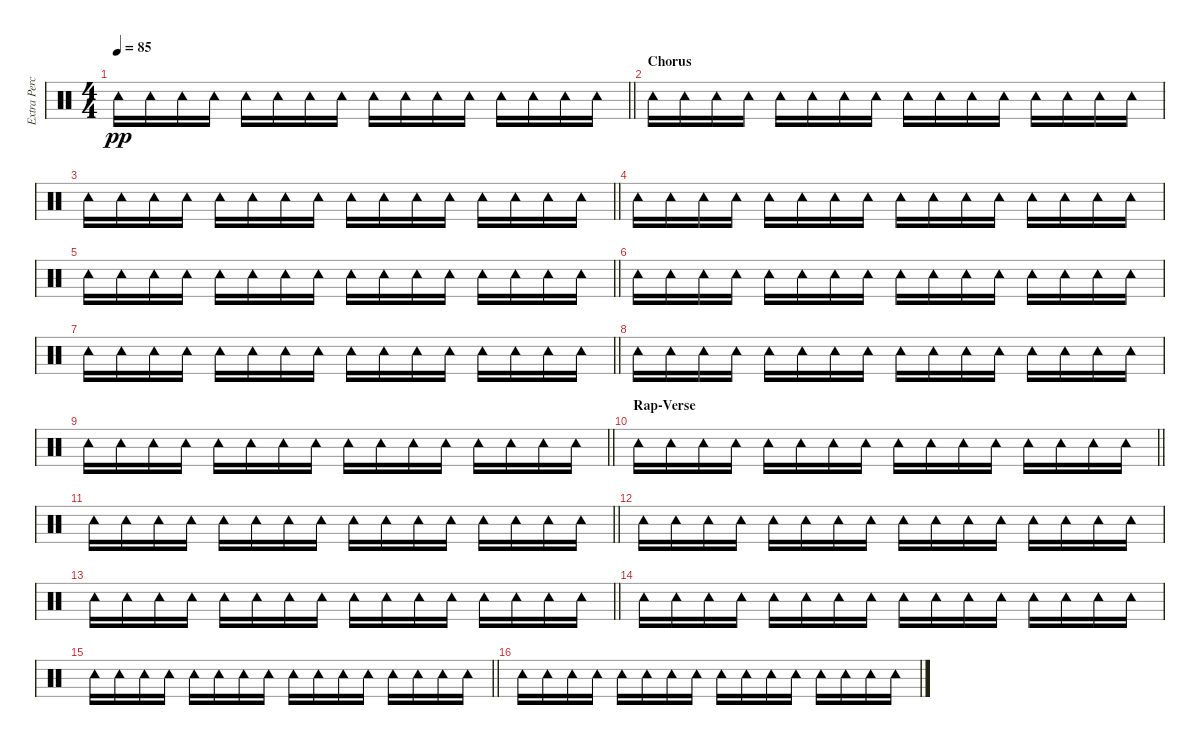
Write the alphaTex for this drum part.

\track ("Extra Percussion" "Extra Perc") {instrument percussion}
\staff {score}
\articulation defaults
\ts (4 4)
\tempo 85
\clef neutral
\barLineRight lightlight
\ks c "Tambourine (hit)".16{dy pp} "Tambourine (hit)".16 "Tambourine (hit)".16 "Tambourine (hit)".16 "Tambourine (hit)".16 "Tambourine (hit)".16 "Tambourine (hit)".16 "Tambourine (hit)".16 "Tambourine (hit)".16 "Tambourine (hit)".16 "Tambourine (hit)".16 "Tambourine (hit)".16 "Tambourine (hit)".16 "Tambourine (hit)".16 "Tambourine (hit)".16 "Tambourine (hit)".16
|
\section ("" "Chorus")
"Tambourine (hit)".16 "Tambourine (hit)".16 "Tambourine (hit)".16 "Tambourine (hit)".16 "Tambourine (hit)".16 "Tambourine (hit)".16 "Tambourine (hit)".16 "Tambourine (hit)".16 "Tambourine (hit)".16 "Tambourine (hit)".16 "Tambourine (hit)".16 "Tambourine (hit)".16 "Tambourine (hit)".16 "Tambourine (hit)".16 "Tambourine (hit)".16 "Tambourine (hit)".16 |
\barLineRight lightlight "Tambourine (hit)".16 "Tambourine (hit)".16 "Tambourine (hit)".16 "Tambourine (hit)".16 "Tambourine (hit)".16 "Tambourine (hit)".16 "Tambourine (hit)".16 "Tambourine (hit)".16 "Tambourine (hit)".16 "Tambourine (hit)".16 "Tambourine (hit)".16 "Tambourine (hit)".16 "Tambourine (hit)".16 "Tambourine (hit)".16 "Tambourine (hit)".16 "Tambourine (hit)".16
|
"Tambourine (hit)".16 "Tambourine (hit)".16 "Tambourine (hit)".16 "Tambourine (hit)".16 "Tambourine (hit)".16 "Tambourine (hit)".16 "Tambourine (hit)".16 "Tambourine (hit)".16 "Tambourine (hit)".16 "Tambourine (hit)".16 "Tambourine (hit)".16 "Tambourine (hit)".16 "Tambourine (hit)".16 "Tambourine (hit)".16 "Tambourine (hit)".16 "Tambourine (hit)".16 |
\barLineRight lightlight "Tambourine (hit)".16 "Tambourine (hit)".16 "Tambourine (hit)".16 "Tambourine (hit)".16 "Tambourine (hit)".16 "Tambourine (hit)".16 "Tambourine (hit)".16 "Tambourine (hit)".16 "Tambourine (hit)".16 "Tambourine (hit)".16 "Tambourine (hit)".16 "Tambourine (hit)".16 "Tambourine (hit)".16 "Tambourine (hit)".16 "Tambourine (hit)".16 "Tambourine (hit)".16
|
"Tambourine (hit)".16 "Tambourine (hit)".16 "Tambourine (hit)".16 "Tambourine (hit)".16 "Tambourine (hit)".16 "Tambourine (hit)".16 "Tambourine (hit)".16 "Tambourine (hit)".16 "Tambourine (hit)".16 "Tambourine (hit)".16 "Tambourine (hit)".16 "Tambourine (hit)".16 "Tambourine (hit)".16 "Tambourine (hit)".16 "Tambourine (hit)".16 "Tambourine (hit)".16 |
\barLineRight lightlight "Tambourine (hit)".16 "Tambourine (hit)".16 "Tambourine (hit)".16 "Tambourine (hit)".16 "Tambourine (hit)".16 "Tambourine (hit)".16 "Tambourine (hit)".16 "Tambourine (hit)".16 "Tambourine (hit)".16 "Tambourine (hit)".16 "Tambourine (hit)".16 "Tambourine (hit)".16 "Tambourine (hit)".16 "Tambourine (hit)".16 "Tambourine (hit)".16 "Tambourine (hit)".16
|
"Tambourine (hit)".16 "Tambourine (hit)".16 "Tambourine (hit)".16 "Tambourine (hit)".16 "Tambourine (hit)".16 "Tambourine (hit)".16 "Tambourine (hit)".16 "Tambourine (hit)".16 "Tambourine (hit)".16 "Tambourine (hit)".16 "Tambourine (hit)".16 "Tambourine (hit)".16 "Tambourine (hit)".16 "Tambourine (hit)".16 "Tambourine (hit)".16 "Tambourine (hit)".16 |
\barLineRight lightlight "Tambourine (hit)".16 "Tambourine (hit)".16 "Tambourine (hit)".16 "Tambourine (hit)".16 "Tambourine (hit)".16 "Tambourine (hit)".16 "Tambourine (hit)".16 "Tambourine (hit)".16 "Tambourine (hit)".16 "Tambourine (hit)".16 "Tambourine (hit)".16 "Tambourine (hit)".16 "Tambourine (hit)".16 "Tambourine (hit)".16 "Tambourine (hit)".16 "Tambourine (hit)".16
|
\section ("" "Rap-Verse")
\barLineRight lightlight "Tambourine (hit)".16 "Tambourine (hit)".16 "Tambourine (hit)".16 "Tambourine (hit)".16 "Tambourine (hit)".16 "Tambourine (hit)".16 "Tambourine (hit)".16 "Tambourine (hit)".16 "Tambourine (hit)".16 "Tambourine (hit)".16 "Tambourine (hit)".16 "Tambourine (hit)".16 "Tambourine (hit)".16 "Tambourine (hit)".16 "Tambourine (hit)".16 "Tambourine (hit)".16
|
\barLineRight lightlight "Tambourine (hit)".16 "Tambourine (hit)".16 "Tambourine (hit)".16 "Tambourine (hit)".16 "Tambourine (hit)".16 "Tambourine (hit)".16 "Tambourine (hit)".16 "Tambourine (hit)".16 "Tambourine (hit)".16 "Tambourine (hit)".16 "Tambourine (hit)".16 "Tambourine (hit)".16 "Tambourine (hit)".16 "Tambourine (hit)".16 "Tambourine (hit)".16 "Tambourine (hit)".16
|
"Tambourine (hit)".16 "Tambourine (hit)".16 "Tambourine (hit)".16 "Tambourine (hit)".16 "Tambourine (hit)".16 "Tambourine (hit)".16 "Tambourine (hit)".16 "Tambourine (hit)".16 "Tambourine (hit)".16 "Tambourine (hit)".16 "Tambourine (hit)".16 "Tambourine (hit)".16 "Tambourine (hit)".16 "Tambourine (hit)".16 "Tambourine (hit)".16 "Tambourine (hit)".16 |
\barLineRight lightlight "Tambourine (hit)".16 "Tambourine (hit)".16 "Tambourine (hit)".16 "Tambourine (hit)".16 "Tambourine (hit)".16 "Tambourine (hit)".16 "Tambourine (hit)".16 "Tambourine (hit)".16 "Tambourine (hit)".16 "Tambourine (hit)".16 "Tambourine (hit)".16 "Tambourine (hit)".16 "Tambourine (hit)".16 "Tambourine (hit)".16 "Tambourine (hit)".16 "Tambourine (hit)".16
|
"Tambourine (hit)".16 "Tambourine (hit)".16 "Tambourine (hit)".16 "Tambourine (hit)".16 "Tambourine (hit)".16 "Tambourine (hit)".16 "Tambourine (hit)".16 "Tambourine (hit)".16 "Tambourine (hit)".16 "Tambourine (hit)".16 "Tambourine (hit)".16 "Tambourine (hit)".16 "Tambourine (hit)".16 "Tambourine (hit)".16 "Tambourine (hit)".16 "Tambourine (hit)".16 |
\barLineRight lightlight "Tambourine (hit)".16 "Tambourine (hit)".16 "Tambourine (hit)".16 "Tambourine (hit)".16 "Tambourine (hit)".16 "Tambourine (hit)".16 "Tambourine (hit)".16 "Tambourine (hit)".16 "Tambourine (hit)".16 "Tambourine (hit)".16 "Tambourine (hit)".16 "Tambourine (hit)".16 "Tambourine (hit)".16 "Tambourine (hit)".16 "Tambourine (hit)".16 "Tambourine (hit)".16
|
"Tambourine (hit)".16 "Tambourine (hit)".16 "Tambourine (hit)".16 "Tambourine (hit)".16 "Tambourine (hit)".16 "Tambourine (hit)".16 "Tambourine (hit)".16 "Tambourine (hit)".16 "Tambourine (hit)".16 "Tambourine (hit)".16 "Tambourine (hit)".16 "Tambourine (hit)".16 "Tambourine (hit)".16 "Tambourine (hit)".16 "Tambourine (hit)".16 "Tambourine (hit)".16
